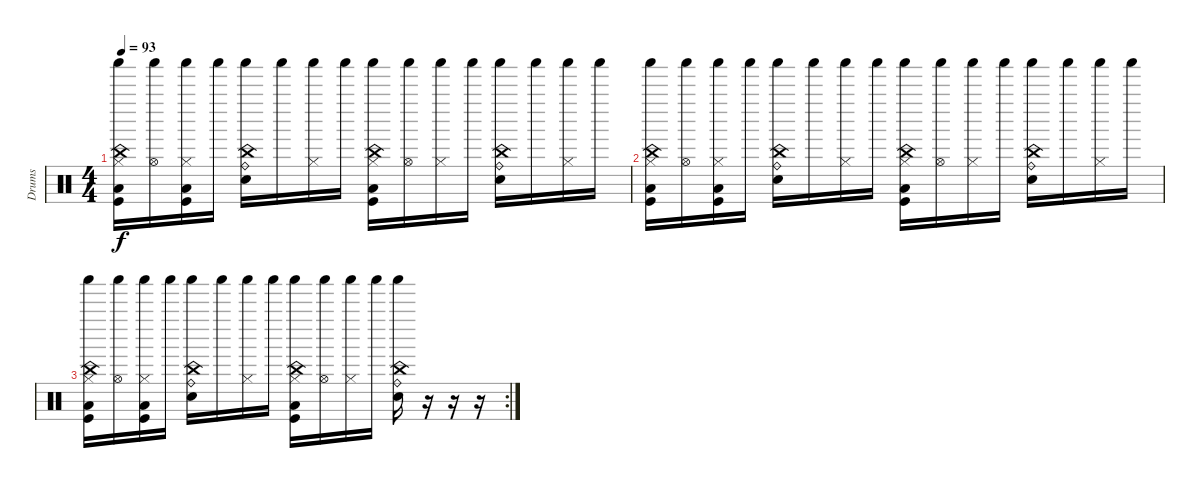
\track ("Drums" "Drums") {instrument percussion}
\staff {score}
\articulation defaults
\ts (4 4)
\tempo 93
\clef neutral
\ks c
("China (hit)" "Shaker (hit)" "Hi-Hat (closed)" "Kick (hit)" "Low Floor Tom (hit)").16{dy f} ("Shaker (hit)" "Hi-Hat (open)").16 ("Shaker (hit)" "Hi-Hat (closed)" "Kick (hit)" "Low Floor Tom (hit)").16 "Shaker (hit)".16 ("China (hit)" "Shaker (hit)" "Ride (bell)" "Electric Snare (hit)").16 "Shaker (hit)".16 ("Shaker (hit)" "Hi-Hat (closed)").16 "Shaker (hit)".16 ("China (hit)" "Shaker (hit)" "Hi-Hat (closed)" "Kick (hit)" "Low Floor Tom (hit)").16 ("Shaker (hit)" "Hi-Hat (open)").16 ("Shaker (hit)" "Hi-Hat (closed)").16 "Shaker (hit)".16 ("China (hit)" "Shaker (hit)" "Ride (bell)" "Electric Snare (hit)").16 "Shaker (hit)".16 ("Shaker (hit)" "Hi-Hat (closed)").16 "Shaker (hit)".16 |
("China (hit)" "Shaker (hit)" "Hi-Hat (closed)" "Kick (hit)" "Low Floor Tom (hit)").16 ("Shaker (hit)" "Hi-Hat (open)").16 ("Shaker (hit)" "Hi-Hat (closed)" "Kick (hit)" "Low Floor Tom (hit)").16 "Shaker (hit)".16 ("China (hit)" "Shaker (hit)" "Ride (bell)" "Electric Snare (hit)").16 "Shaker (hit)".16 ("Shaker (hit)" "Hi-Hat (closed)").16 "Shaker (hit)".16 ("China (hit)" "Shaker (hit)" "Hi-Hat (closed)" "Kick (hit)" "Low Floor Tom (hit)").16 ("Shaker (hit)" "Hi-Hat (open)").16 ("Shaker (hit)" "Hi-Hat (closed)").16 "Shaker (hit)".16 ("China (hit)" "Shaker (hit)" "Ride (bell)" "Electric Snare (hit)").16 "Shaker (hit)".16 ("Shaker (hit)" "Hi-Hat (closed)").16 "Shaker (hit)".16 |
\rc 2
("China (hit)" "Shaker (hit)" "Hi-Hat (closed)" "Kick (hit)" "Low Floor Tom (hit)").16 ("Shaker (hit)" "Hi-Hat (open)").16 ("Shaker (hit)" "Hi-Hat (closed)" "Kick (hit)" "Low Floor Tom (hit)").16 "Shaker (hit)".16 ("China (hit)" "Shaker (hit)" "Ride (bell)" "Electric Snare (hit)").16 "Shaker (hit)".16 ("Shaker (hit)" "Hi-Hat (closed)").16 "Shaker (hit)".16 ("China (hit)" "Shaker (hit)" "Hi-Hat (closed)" "Kick (hit)" "Low Floor Tom (hit)").16 ("Shaker (hit)" "Hi-Hat (open)").16 ("Shaker (hit)" "Hi-Hat (closed)").16 "Shaker (hit)".16 ("China (hit)" "Shaker (hit)" "Ride (bell)" "Electric Snare (hit)").16 r.16 r.16 r.16
